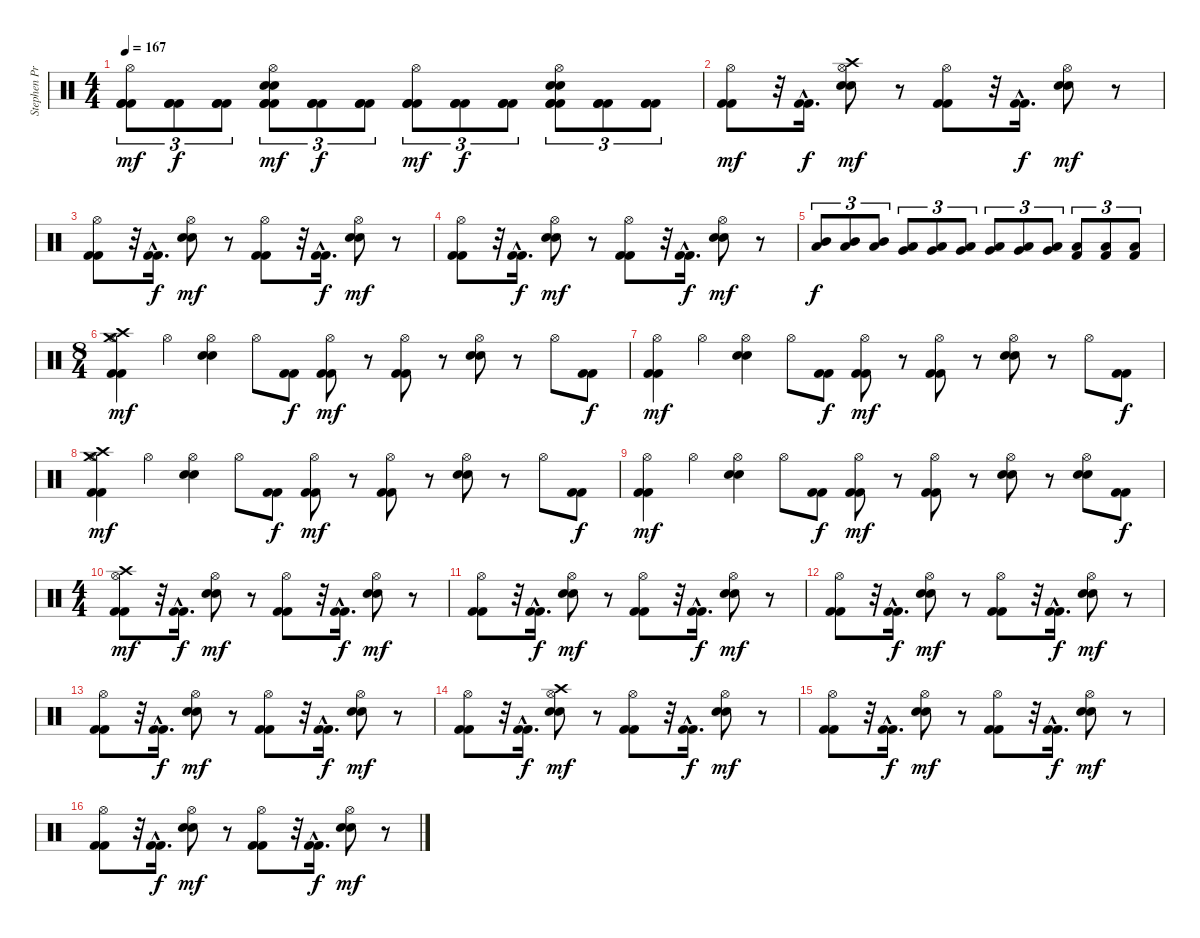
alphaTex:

\track ("Stephen Priestly  (Drums)" "Stephen Pr") {instrument percussion}
\staff {score}
\articulation defaults
\ts (4 4)
\tempo 167
\clef neutral
\ks c
("Hi-Hat (open)" "Kick (hit) 2" "Kick (hit) 2" "Kick (hit) 2").8{tu (3 2) dy mf} ("Kick (hit) 2" "Kick (hit) 2" "Kick (hit) 2").8{tu (3 2) dy f} ("Kick (hit) 2" "Kick (hit) 2" "Kick (hit) 2").8{tu (3 2)} ("Electric Snare (hit)" "Hi-Hat (open)" "Electric Snare (hit)" "Kick (hit) 2" "Kick (hit) 2" "Kick (hit) 2").8{tu (3 2) dy mf} ("Kick (hit) 2" "Kick (hit) 2" "Kick (hit) 2").8{tu (3 2) dy f} ("Kick (hit) 2" "Kick (hit) 2" "Kick (hit) 2").8{tu (3 2)} ("Hi-Hat (open)" "Kick (hit) 2" "Kick (hit) 2" "Kick (hit) 2").8{tu (3 2) dy mf} ("Kick (hit) 2" "Kick (hit) 2" "Kick (hit) 2").8{tu (3 2) dy f} ("Kick (hit) 2" "Kick (hit) 2" "Kick (hit) 2").8{tu (3 2)} ("Electric Snare (hit)" "Hi-Hat (open)" "Electric Snare (hit)" "Kick (hit) 2" "Kick (hit) 2" "Kick (hit) 2").8{tu (3 2)} ("Kick (hit) 2" "Kick (hit) 2" "Kick (hit) 2").8{tu (3 2)} ("Kick (hit) 2" "Kick (hit) 2" "Kick (hit) 2").8{tu (3 2)} |
("Hi-Hat (open)" "Kick (hit) 2" "Kick (hit) 2").8{dy mf} r.32 ("Kick (hit) 2"{hac} "Kick (hit) 2"{hac}).16{d dy f} ("Crash high (hit)" "Hi-Hat (open)" "Electric Snare (hit)" "Electric Snare (hit)").8{dy mf} r.8 ("Hi-Hat (open)" "Kick (hit) 2" "Kick (hit) 2").8 r.32 ("Kick (hit) 2"{hac} "Kick (hit) 2"{hac}).16{d dy f} ("Hi-Hat (open)" "Electric Snare (hit)" "Electric Snare (hit)").8{dy mf} r.8 |
("Hi-Hat (open)" "Kick (hit) 2" "Kick (hit) 2").8 r.32 ("Kick (hit) 2"{hac} "Kick (hit) 2"{hac}).16{d dy f} ("Hi-Hat (open)" "Electric Snare (hit)" "Electric Snare (hit)").8{dy mf} r.8 ("Hi-Hat (open)" "Kick (hit) 2" "Kick (hit) 2").8 r.32 ("Kick (hit) 2"{hac} "Kick (hit) 2"{hac}).16{d dy f} ("Hi-Hat (open)" "Electric Snare (hit)" "Electric Snare (hit)").8{dy mf} r.8 |
("Hi-Hat (open)" "Kick (hit) 2" "Kick (hit) 2").8 r.32 ("Kick (hit) 2"{hac} "Kick (hit) 2"{hac}).16{d dy f} ("Hi-Hat (open)" "Electric Snare (hit)" "Electric Snare (hit)").8{dy mf} r.8 ("Hi-Hat (open)" "Kick (hit) 2" "Kick (hit) 2").8 r.32 ("Kick (hit) 2"{hac} "Kick (hit) 2"{hac}).16{d dy f} ("Hi-Hat (open)" "Electric Snare (hit)" "Electric Snare (hit)").8{dy mf} r.8 |
("Mid Tom (hit)" "Low Tom (hit)").8{tu (3 2) dy f} ("Mid Tom (hit)" "Low Tom (hit)").8{tu (3 2)} ("Mid Tom (hit)" "Low Tom (hit)").8{tu (3 2)} ("Low Tom (hit)" "Very Low Tom (hit)").8{tu (3 2)} ("Low Tom (hit)" "Very Low Tom (hit)").8{tu (3 2)} ("Low Tom (hit)" "Very Low Tom (hit)").8{tu (3 2)} ("Very Low Tom (hit)" "Low Floor Tom (hit)").8{tu (3 2)} ("Very Low Tom (hit)" "Low Floor Tom (hit)").8{tu (3 2)} ("Very Low Tom (hit)" "Low Floor Tom (hit)").8{tu (3 2)} ("Low Floor Tom (hit)" "Kick (hit) 2").8{tu (3 2)} ("Low Floor Tom (hit)" "Kick (hit) 2").8{tu (3 2)} ("Low Floor Tom (hit)" "Kick (hit) 2").8{tu (3 2)} |
\ts (8 4)
("Crash high (hit)" "Crash medium (hit)" "Hi-Hat (open)" "Kick (hit) 2" "Kick (hit) 2").4{dy mf} "Hi-Hat (open)".4 ("Hi-Hat (open)" "Electric Snare (hit)" "Electric Snare (hit)").4 "Hi-Hat (open)".8 ("Kick (hit) 2" "Kick (hit) 2").8{dy f} ("Hi-Hat (open)" "Kick (hit) 2" "Kick (hit) 2").8{dy mf} r.8 ("Hi-Hat (open)" "Kick (hit) 2" "Kick (hit) 2").8 r.8 ("Hi-Hat (open)" "Electric Snare (hit)" "Electric Snare (hit)").8 r.8 "Hi-Hat (open)".8 ("Kick (hit) 2" "Kick (hit) 2").8{dy f} |
("Hi-Hat (open)" "Kick (hit) 2" "Kick (hit) 2").4{dy mf} "Hi-Hat (open)".4 ("Hi-Hat (open)" "Electric Snare (hit)" "Electric Snare (hit)").4 "Hi-Hat (open)".8 ("Kick (hit) 2" "Kick (hit) 2").8{dy f} ("Hi-Hat (open)" "Kick (hit) 2" "Kick (hit) 2").8{dy mf} r.8 ("Hi-Hat (open)" "Kick (hit) 2" "Kick (hit) 2").8 r.8 ("Hi-Hat (open)" "Electric Snare (hit)" "Electric Snare (hit)").8 r.8 "Hi-Hat (open)".8 ("Kick (hit) 2" "Kick (hit) 2").8{dy f} |
("Crash high (hit)" "Crash medium (hit)" "Hi-Hat (open)" "Kick (hit) 2" "Kick (hit) 2").4{dy mf} "Hi-Hat (open)".4 ("Hi-Hat (open)" "Electric Snare (hit)" "Electric Snare (hit)").4 "Hi-Hat (open)".8 ("Kick (hit) 2" "Kick (hit) 2").8{dy f} ("Hi-Hat (open)" "Kick (hit) 2" "Kick (hit) 2").8{dy mf} r.8 ("Hi-Hat (open)" "Kick (hit) 2" "Kick (hit) 2").8 r.8 ("Hi-Hat (open)" "Electric Snare (hit)" "Electric Snare (hit)").8 r.8 "Hi-Hat (open)".8 ("Kick (hit) 2" "Kick (hit) 2").8{dy f} |
("Hi-Hat (open)" "Kick (hit) 2" "Kick (hit) 2").4{dy mf} "Hi-Hat (open)".4 ("Hi-Hat (open)" "Electric Snare (hit)" "Electric Snare (hit)").4 "Hi-Hat (open)".8 ("Kick (hit) 2" "Kick (hit) 2").8{dy f} ("Hi-Hat (open)" "Kick (hit) 2" "Kick (hit) 2").8{dy mf} r.8 ("Hi-Hat (open)" "Kick (hit) 2" "Kick (hit) 2").8 r.8 ("Hi-Hat (open)" "Electric Snare (hit)" "Electric Snare (hit)").8 r.8 ("Hi-Hat (open)" "Electric Snare (hit)" "Electric Snare (hit)").8 ("Kick (hit) 2" "Kick (hit) 2").8{dy f} |
\ts (4 4)
("Crash high (hit)" "Hi-Hat (open)" "Kick (hit) 2" "Kick (hit) 2").8{dy mf} r.32 ("Kick (hit) 2"{hac} "Kick (hit) 2"{hac}).16{d dy f} ("Hi-Hat (open)" "Electric Snare (hit)" "Electric Snare (hit)").8{dy mf} r.8 ("Hi-Hat (open)" "Kick (hit) 2" "Kick (hit) 2").8 r.32 ("Kick (hit) 2"{hac} "Kick (hit) 2"{hac}).16{d dy f} ("Hi-Hat (open)" "Electric Snare (hit)" "Electric Snare (hit)").8{dy mf} r.8 |
("Hi-Hat (open)" "Kick (hit) 2" "Kick (hit) 2").8 r.32 ("Kick (hit) 2"{hac} "Kick (hit) 2"{hac}).16{d dy f} ("Hi-Hat (open)" "Electric Snare (hit)" "Electric Snare (hit)").8{dy mf} r.8 ("Hi-Hat (open)" "Kick (hit) 2" "Kick (hit) 2").8 r.32 ("Kick (hit) 2"{hac} "Kick (hit) 2"{hac}).16{d dy f} ("Hi-Hat (open)" "Electric Snare (hit)" "Electric Snare (hit)").8{dy mf} r.8 |
("Hi-Hat (open)" "Kick (hit) 2" "Kick (hit) 2").8 r.32 ("Kick (hit) 2"{hac} "Kick (hit) 2"{hac}).16{d dy f} ("Hi-Hat (open)" "Electric Snare (hit)" "Electric Snare (hit)").8{dy mf} r.8 ("Hi-Hat (open)" "Kick (hit) 2" "Kick (hit) 2").8 r.32 ("Kick (hit) 2"{hac} "Kick (hit) 2"{hac}).16{d dy f} ("Hi-Hat (open)" "Electric Snare (hit)" "Electric Snare (hit)").8{dy mf} r.8 |
("Hi-Hat (open)" "Kick (hit) 2" "Kick (hit) 2").8 r.32 ("Kick (hit) 2"{hac} "Kick (hit) 2"{hac}).16{d dy f} ("Hi-Hat (open)" "Electric Snare (hit)" "Electric Snare (hit)").8{dy mf} r.8 ("Hi-Hat (open)" "Kick (hit) 2" "Kick (hit) 2").8 r.32 ("Kick (hit) 2"{hac} "Kick (hit) 2"{hac}).16{d dy f} ("Hi-Hat (open)" "Electric Snare (hit)" "Electric Snare (hit)").8{dy mf} r.8 |
("Hi-Hat (open)" "Kick (hit) 2" "Kick (hit) 2").8 r.32 ("Kick (hit) 2"{hac} "Kick (hit) 2"{hac}).16{d dy f} ("Crash high (hit)" "Hi-Hat (open)" "Electric Snare (hit)" "Electric Snare (hit)").8{dy mf} r.8 ("Hi-Hat (open)" "Kick (hit) 2" "Kick (hit) 2").8 r.32 ("Kick (hit) 2"{hac} "Kick (hit) 2"{hac}).16{d dy f} ("Hi-Hat (open)" "Electric Snare (hit)" "Electric Snare (hit)").8{dy mf} r.8 |
("Hi-Hat (open)" "Kick (hit) 2" "Kick (hit) 2").8 r.32 ("Kick (hit) 2"{hac} "Kick (hit) 2"{hac}).16{d dy f} ("Hi-Hat (open)" "Electric Snare (hit)" "Electric Snare (hit)").8{dy mf} r.8 ("Hi-Hat (open)" "Kick (hit) 2" "Kick (hit) 2").8 r.32 ("Kick (hit) 2"{hac} "Kick (hit) 2"{hac}).16{d dy f} ("Hi-Hat (open)" "Electric Snare (hit)" "Electric Snare (hit)").8{dy mf} r.8 |
("Hi-Hat (open)" "Kick (hit) 2" "Kick (hit) 2").8 r.32 ("Kick (hit) 2"{hac} "Kick (hit) 2"{hac}).16{d dy f} ("Hi-Hat (open)" "Electric Snare (hit)" "Electric Snare (hit)").8{dy mf} r.8 ("Hi-Hat (open)" "Kick (hit) 2" "Kick (hit) 2").8 r.32 ("Kick (hit) 2"{hac} "Kick (hit) 2"{hac}).16{d dy f} ("Hi-Hat (open)" "Electric Snare (hit)" "Electric Snare (hit)").8{dy mf} r.8
